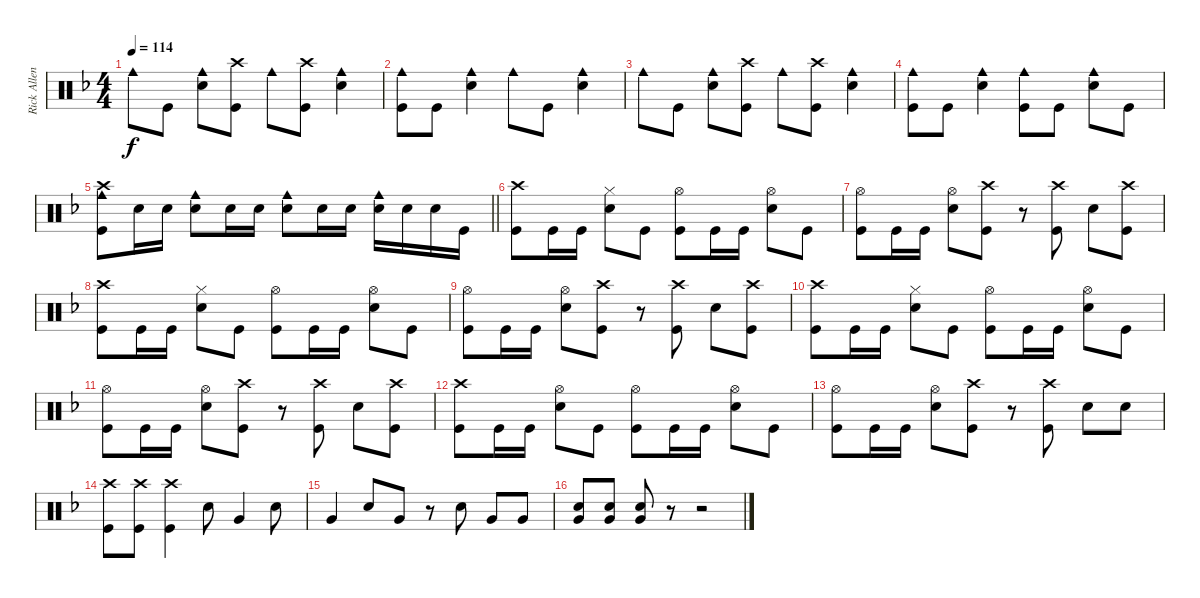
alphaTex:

\track ("Rick Allen" "Rick Allen") {instrument percussion}
\staff {score}
\articulation defaults
\ts (4 4)
\tempo 114
\clef neutral
\ks dminor "Cowbell medium (hit)".8{dy f} "Kick (hit)".8
("Cowbell medium (hit)" "Snare (hit) 2").8 ("Crash high (hit)" "Kick (hit)").8 "Cowbell medium (hit)".8 ("Crash high (hit)" "Kick (hit)").8 ("Cowbell medium (hit)" "Snare (hit) 2").4 |
("Cowbell medium (hit)" "Kick (hit)").8 "Kick (hit)".8 ("Cowbell medium (hit)" "Snare (hit) 2").4 "Cowbell medium (hit)".8 "Kick (hit)".8 ("Cowbell medium (hit)" "Snare (hit) 2").4 |
"Cowbell medium (hit)".8 "Kick (hit)".8 ("Cowbell medium (hit)" "Snare (hit) 2").8 ("Crash high (hit)" "Kick (hit)").8 "Cowbell medium (hit)".8 ("Crash high (hit)" "Kick (hit)").8 ("Cowbell medium (hit)" "Snare (hit) 2").4 |
("Cowbell medium (hit)" "Kick (hit)").8 "Kick (hit)".8 ("Cowbell medium (hit)" "Snare (hit) 2").4 ("Cowbell medium (hit)" "Kick (hit)").8 "Kick (hit)".8 ("Cowbell medium (hit)" "Snare (hit) 2").8 "Kick (hit)".8 |
\barLineRight lightlight
("Crash high (hit)" "Cowbell medium (hit)" "Kick (hit)").8 "Snare (hit) 2".16 "Snare (hit) 2".16 ("Cowbell medium (hit)" "Snare (hit) 2").8 "Snare (hit) 2".16 "Snare (hit) 2".16 ("Cowbell medium (hit)" "Snare (hit) 2").8 "Snare (hit) 2".16 "Snare (hit) 2".16 ("Cowbell medium (hit)" "Snare (hit) 2").16 "Snare (hit) 2".16 "Snare (hit) 2".16 "Kick (hit)".16 |
("Crash high (hit)" "Kick (hit)").8 "Kick (hit)".16 "Kick (hit)".16 ("Hi-Hat (closed)" "Snare (hit) 2").8 "Kick (hit)".8 ("Hi-Hat (open)" "Kick (hit)").8 "Kick (hit)".16 "Kick (hit)".16 ("Hi-Hat (open)" "Snare (hit) 2").8 "Kick (hit)".8 |
("Hi-Hat (open)" "Kick (hit)").8 "Kick (hit)".16 "Kick (hit)".16 ("Hi-Hat (open)" "Snare (hit) 2").8 ("Crash high (hit)" "Kick (hit)").8 r.8 ("Crash high (hit)" "Kick (hit)").8 "Snare (hit) 2".8 ("Crash high (hit)" "Kick (hit)").8 |
("Crash high (hit)" "Kick (hit)").8 "Kick (hit)".16 "Kick (hit)".16 ("Hi-Hat (closed)" "Snare (hit) 2").8 "Kick (hit)".8 ("Hi-Hat (open)" "Kick (hit)").8 "Kick (hit)".16 "Kick (hit)".16 ("Hi-Hat (open)" "Snare (hit) 2").8 "Kick (hit)".8 |
("Hi-Hat (open)" "Kick (hit)").8 "Kick (hit)".16 "Kick (hit)".16 ("Hi-Hat (open)" "Snare (hit) 2").8 ("Crash high (hit)" "Kick (hit)").8 r.8 ("Crash high (hit)" "Kick (hit)").8 "Snare (hit) 2".8 ("Crash high (hit)" "Kick (hit)").8 |
("Crash high (hit)" "Kick (hit)").8 "Kick (hit)".16 "Kick (hit)".16 ("Hi-Hat (closed)" "Snare (hit) 2").8 "Kick (hit)".8 ("Hi-Hat (open)" "Kick (hit)").8 "Kick (hit)".16 "Kick (hit)".16 ("Hi-Hat (open)" "Snare (hit) 2").8 "Kick (hit)".8 |
("Hi-Hat (open)" "Kick (hit)").8 "Kick (hit)".16 "Kick (hit)".16 ("Hi-Hat (open)" "Snare (hit) 2").8 ("Crash high (hit)" "Kick (hit)").8 r.8 ("Crash high (hit)" "Kick (hit)").8 "Snare (hit) 2".8 ("Crash high (hit)" "Kick (hit)").8 |
("Crash high (hit)" "Kick (hit)").8 "Kick (hit)".16 "Kick (hit)".16 ("Hi-Hat (open)" "Snare (hit) 2").8 "Kick (hit)".8 ("Hi-Hat (open)" "Kick (hit)").8 "Kick (hit)".16 "Kick (hit)".16 ("Hi-Hat (open)" "Snare (hit) 2").8 "Kick (hit)".8 |
("Hi-Hat (open)" "Kick (hit)").8 "Kick (hit)".16 "Kick (hit)".16 ("Hi-Hat (open)" "Snare (hit) 2").8 ("Crash high (hit)" "Kick (hit)").8 r.8 ("Crash high (hit)" "Kick (hit)").8 "Snare (hit) 2".8 "Snare (hit) 2".8 |
("Crash high (hit)" "Kick (hit)").8 ("Crash high (hit)" "Kick (hit)").8 ("Crash high (hit)" "Kick (hit)").4 "Snare (hit) 2".8 "Very Low Tom (hit)".4 "Snare (hit) 2".8 |
"Very Low Tom (hit)".4 "Snare (hit) 2".8 "Very Low Tom (hit)".8 r.8 "Snare (hit) 2".8 "Very Low Tom (hit)".8 "Very Low Tom (hit)".8 |
("Snare (hit) 2" "Very Low Tom (hit)").8 ("Snare (hit) 2" "Very Low Tom (hit)").8 ("Snare (hit) 2" "Very Low Tom (hit)").8 r.8 r.2
